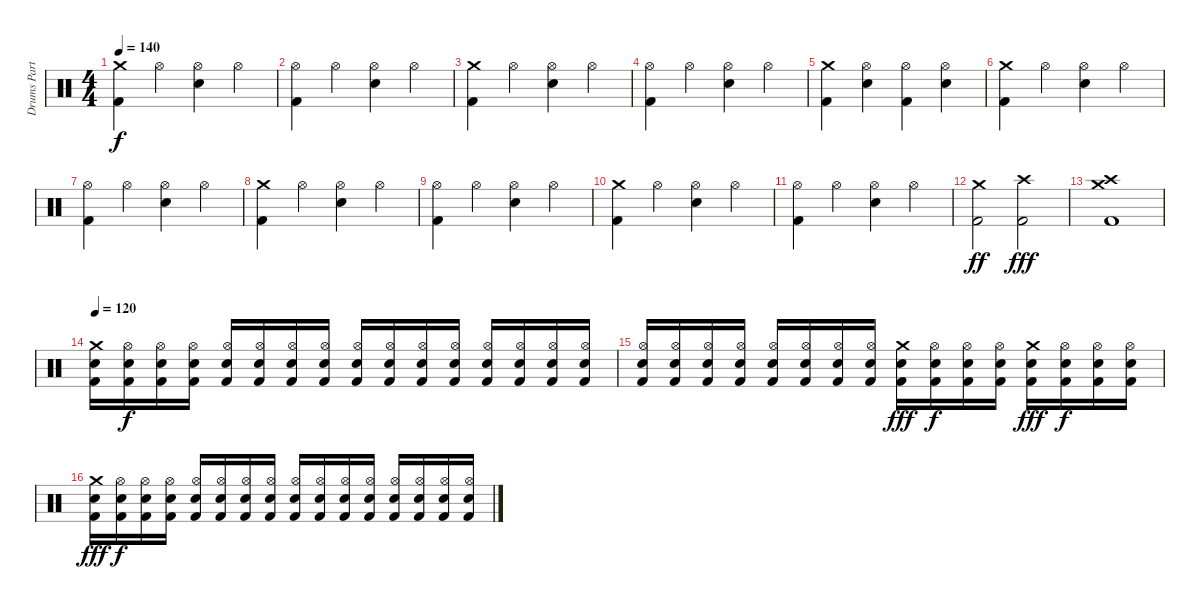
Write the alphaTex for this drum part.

\track ("Drums Part" "Drums Part") {instrument percussion}
\staff {score}
\articulation defaults
\ts (4 4)
\tempo 140
\clef neutral
\ks c
("Crash medium (hit)" "Kick (hit) 2").4{dy f} "Hi-Hat (open)".4 ("Hi-Hat (open)" "Electric Snare (hit)").4 "Hi-Hat (open)".4 |
("Hi-Hat (open)" "Kick (hit) 2").4 "Hi-Hat (open)".4 ("Hi-Hat (open)" "Electric Snare (hit)").4 "Hi-Hat (open)".4 |
("Crash medium (hit)" "Kick (hit) 2").4 "Hi-Hat (open)".4 ("Hi-Hat (open)" "Electric Snare (hit)").4 "Hi-Hat (open)".4 |
("Hi-Hat (open)" "Kick (hit) 2").4 "Hi-Hat (open)".4 ("Hi-Hat (open)" "Electric Snare (hit)").4 "Hi-Hat (open)".4 |
("Crash medium (hit)" "Kick (hit) 2").4 ("Hi-Hat (open)" "Electric Snare (hit)").4 ("Hi-Hat (open)" "Kick (hit) 2").4 ("Hi-Hat (open)" "Electric Snare (hit)").4 |
("Crash medium (hit)" "Kick (hit) 2").4 "Hi-Hat (open)".4 ("Hi-Hat (open)" "Electric Snare (hit)").4 "Hi-Hat (open)".4 |
("Hi-Hat (open)" "Kick (hit) 2").4 "Hi-Hat (open)".4 ("Hi-Hat (open)" "Electric Snare (hit)").4 "Hi-Hat (open)".4 |
("Crash medium (hit)" "Kick (hit) 2").4 "Hi-Hat (open)".4 ("Hi-Hat (open)" "Electric Snare (hit)").4 "Hi-Hat (open)".4 |
("Hi-Hat (open)" "Kick (hit) 2").4 "Hi-Hat (open)".4 ("Hi-Hat (open)" "Electric Snare (hit)").4 "Hi-Hat (open)".4 |
("Crash medium (hit)" "Kick (hit) 2").4 "Hi-Hat (open)".4 ("Hi-Hat (open)" "Electric Snare (hit)").4 "Hi-Hat (open)".4 |
("Hi-Hat (open)" "Kick (hit) 2").4 "Hi-Hat (open)".4 ("Hi-Hat (open)" "Electric Snare (hit)").4 "Hi-Hat (open)".4 |
("Crash medium (hit)" "Kick (hit) 2").2{dy ff} ("Crash high (hit)" "Kick (hit) 2").2{dy fff} |
("Crash high (hit)" "Crash medium (hit)" "Kick (hit) 2").1 |
\tempo 120
("Crash medium (hit)" "Electric Snare (hit)" "Kick (hit) 2").16 ("Hi-Hat (open)" "Electric Snare (hit)" "Kick (hit) 2").16{dy f} ("Hi-Hat (open)" "Electric Snare (hit)" "Kick (hit) 2").16 ("Hi-Hat (open)" "Electric Snare (hit)" "Kick (hit) 2").16 ("Hi-Hat (open)" "Electric Snare (hit)" "Kick (hit) 2").16 ("Hi-Hat (open)" "Electric Snare (hit)" "Kick (hit) 2").16 ("Hi-Hat (open)" "Electric Snare (hit)" "Kick (hit) 2").16 ("Hi-Hat (open)" "Electric Snare (hit)" "Kick (hit) 2").16 ("Hi-Hat (open)" "Electric Snare (hit)" "Kick (hit) 2").16 ("Hi-Hat (open)" "Electric Snare (hit)" "Kick (hit) 2").16 ("Hi-Hat (open)" "Electric Snare (hit)" "Kick (hit) 2").16 ("Hi-Hat (open)" "Electric Snare (hit)" "Kick (hit) 2").16 ("Hi-Hat (open)" "Electric Snare (hit)" "Kick (hit) 2").16 ("Hi-Hat (open)" "Electric Snare (hit)" "Kick (hit) 2").16 ("Hi-Hat (open)" "Electric Snare (hit)" "Kick (hit) 2").16 ("Hi-Hat (open)" "Electric Snare (hit)" "Kick (hit) 2").16 |
("Hi-Hat (open)" "Electric Snare (hit)" "Kick (hit) 2").16 ("Hi-Hat (open)" "Electric Snare (hit)" "Kick (hit) 2").16 ("Hi-Hat (open)" "Electric Snare (hit)" "Kick (hit) 2").16 ("Hi-Hat (open)" "Electric Snare (hit)" "Kick (hit) 2").16 ("Hi-Hat (open)" "Electric Snare (hit)" "Kick (hit) 2").16 ("Hi-Hat (open)" "Electric Snare (hit)" "Kick (hit) 2").16 ("Hi-Hat (open)" "Electric Snare (hit)" "Kick (hit) 2").16 ("Hi-Hat (open)" "Electric Snare (hit)" "Kick (hit) 2").16 ("Crash medium (hit)" "Electric Snare (hit)" "Kick (hit) 2").16{dy fff} ("Hi-Hat (open)" "Electric Snare (hit)" "Kick (hit) 2").16{dy f} ("Hi-Hat (open)" "Electric Snare (hit)" "Kick (hit) 2").16 ("Hi-Hat (open)" "Electric Snare (hit)" "Kick (hit) 2").16 ("Crash medium (hit)" "Electric Snare (hit)" "Kick (hit) 2").16{dy fff} ("Hi-Hat (open)" "Electric Snare (hit)" "Kick (hit) 2").16{dy f} ("Hi-Hat (open)" "Electric Snare (hit)" "Kick (hit) 2").16 ("Hi-Hat (open)" "Electric Snare (hit)" "Kick (hit) 2").16 |
("Crash medium (hit)" "Electric Snare (hit)" "Kick (hit) 2").16{dy fff} ("Hi-Hat (open)" "Electric Snare (hit)" "Kick (hit) 2").16{dy f} ("Hi-Hat (open)" "Electric Snare (hit)" "Kick (hit) 2").16 ("Hi-Hat (open)" "Electric Snare (hit)" "Kick (hit) 2").16 ("Hi-Hat (open)" "Electric Snare (hit)" "Kick (hit) 2").16 ("Hi-Hat (open)" "Electric Snare (hit)" "Kick (hit) 2").16 ("Hi-Hat (open)" "Electric Snare (hit)" "Kick (hit) 2").16 ("Hi-Hat (open)" "Electric Snare (hit)" "Kick (hit) 2").16 ("Hi-Hat (open)" "Electric Snare (hit)" "Kick (hit) 2").16 ("Hi-Hat (open)" "Electric Snare (hit)" "Kick (hit) 2").16 ("Hi-Hat (open)" "Electric Snare (hit)" "Kick (hit) 2").16 ("Hi-Hat (open)" "Electric Snare (hit)" "Kick (hit) 2").16 ("Hi-Hat (open)" "Electric Snare (hit)" "Kick (hit) 2").16 ("Hi-Hat (open)" "Electric Snare (hit)" "Kick (hit) 2").16 ("Hi-Hat (open)" "Electric Snare (hit)" "Kick (hit) 2").16 ("Hi-Hat (open)" "Electric Snare (hit)" "Kick (hit) 2").16
